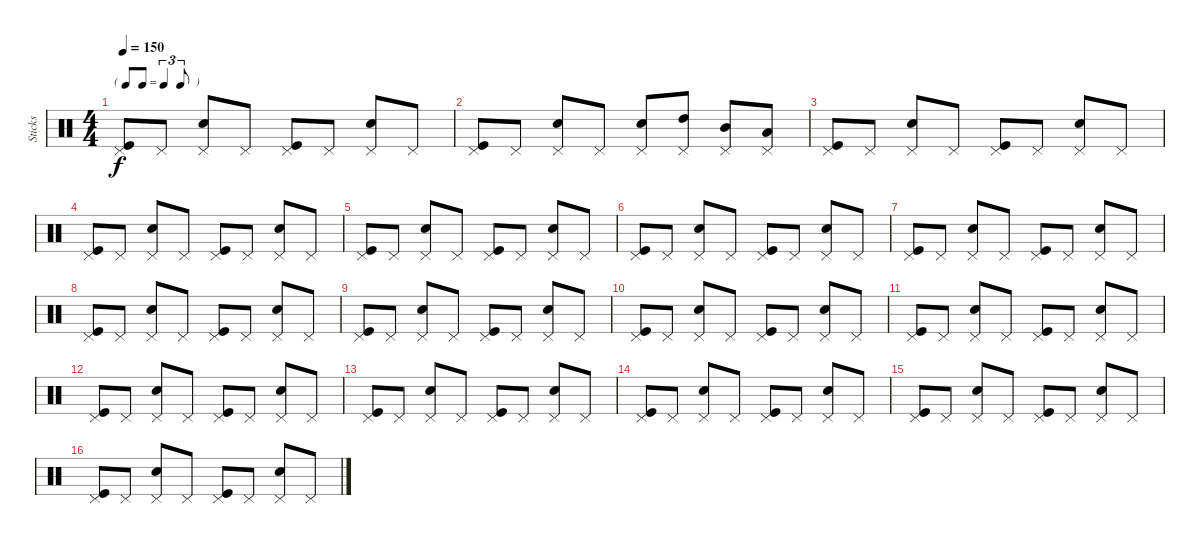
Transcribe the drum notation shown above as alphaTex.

\track ("Sticks" "Sticks") {instrument percussion}
\staff {score}
\articulation defaults
\ts (4 4)
\tf triplet8th
\tempo 150
\clef neutral
\ks c
("Pedal Hi-Hat (hit)" "Kick (hit)").8{dy f} "Pedal Hi-Hat (hit)".8 ("Pedal Hi-Hat (hit)" "Snare (hit) 2").8 "Pedal Hi-Hat (hit)".8 ("Pedal Hi-Hat (hit)" "Kick (hit)").8 "Pedal Hi-Hat (hit)".8 ("Pedal Hi-Hat (hit)" "Snare (hit) 2").8 "Pedal Hi-Hat (hit)".8 |
("Pedal Hi-Hat (hit)" "Kick (hit)").8 "Pedal Hi-Hat (hit)".8 ("Pedal Hi-Hat (hit)" "Snare (hit) 2").8 "Pedal Hi-Hat (hit)".8 ("Pedal Hi-Hat (hit)" "Snare (hit) 2").8 ("Pedal Hi-Hat (hit)" "High Tom (hit)").8 ("Pedal Hi-Hat (hit)" "Mid Tom (hit)").8 ("Pedal Hi-Hat (hit)" "Low Tom (hit)").8 |
("Pedal Hi-Hat (hit)" "Kick (hit)").8 "Pedal Hi-Hat (hit)".8 ("Pedal Hi-Hat (hit)" "Snare (hit) 2").8 "Pedal Hi-Hat (hit)".8 ("Pedal Hi-Hat (hit)" "Kick (hit)").8 "Pedal Hi-Hat (hit)".8 ("Pedal Hi-Hat (hit)" "Snare (hit) 2").8 "Pedal Hi-Hat (hit)".8 |
("Pedal Hi-Hat (hit)" "Kick (hit)").8 "Pedal Hi-Hat (hit)".8 ("Pedal Hi-Hat (hit)" "Snare (hit) 2").8 "Pedal Hi-Hat (hit)".8 ("Pedal Hi-Hat (hit)" "Kick (hit)").8 "Pedal Hi-Hat (hit)".8 ("Pedal Hi-Hat (hit)" "Snare (hit) 2").8 "Pedal Hi-Hat (hit)".8 |
("Pedal Hi-Hat (hit)" "Kick (hit)").8 "Pedal Hi-Hat (hit)".8 ("Pedal Hi-Hat (hit)" "Snare (hit) 2").8 "Pedal Hi-Hat (hit)".8 ("Pedal Hi-Hat (hit)" "Kick (hit)").8 "Pedal Hi-Hat (hit)".8 ("Pedal Hi-Hat (hit)" "Snare (hit) 2").8 "Pedal Hi-Hat (hit)".8 |
("Pedal Hi-Hat (hit)" "Kick (hit)").8 "Pedal Hi-Hat (hit)".8 ("Pedal Hi-Hat (hit)" "Snare (hit) 2").8 "Pedal Hi-Hat (hit)".8 ("Pedal Hi-Hat (hit)" "Kick (hit)").8 "Pedal Hi-Hat (hit)".8 ("Pedal Hi-Hat (hit)" "Snare (hit) 2").8 "Pedal Hi-Hat (hit)".8 |
("Pedal Hi-Hat (hit)" "Kick (hit)").8 "Pedal Hi-Hat (hit)".8 ("Pedal Hi-Hat (hit)" "Snare (hit) 2").8 "Pedal Hi-Hat (hit)".8 ("Pedal Hi-Hat (hit)" "Kick (hit)").8 "Pedal Hi-Hat (hit)".8 ("Pedal Hi-Hat (hit)" "Snare (hit) 2").8 "Pedal Hi-Hat (hit)".8 |
("Pedal Hi-Hat (hit)" "Kick (hit)").8 "Pedal Hi-Hat (hit)".8 ("Pedal Hi-Hat (hit)" "Snare (hit) 2").8 "Pedal Hi-Hat (hit)".8 ("Pedal Hi-Hat (hit)" "Kick (hit)").8 "Pedal Hi-Hat (hit)".8 ("Pedal Hi-Hat (hit)" "Snare (hit) 2").8 "Pedal Hi-Hat (hit)".8 |
("Pedal Hi-Hat (hit)" "Kick (hit)").8 "Pedal Hi-Hat (hit)".8 ("Pedal Hi-Hat (hit)" "Snare (hit) 2").8 "Pedal Hi-Hat (hit)".8 ("Pedal Hi-Hat (hit)" "Kick (hit)").8 "Pedal Hi-Hat (hit)".8 ("Pedal Hi-Hat (hit)" "Snare (hit) 2").8 "Pedal Hi-Hat (hit)".8 |
("Pedal Hi-Hat (hit)" "Kick (hit)").8 "Pedal Hi-Hat (hit)".8 ("Pedal Hi-Hat (hit)" "Snare (hit) 2").8 "Pedal Hi-Hat (hit)".8 ("Pedal Hi-Hat (hit)" "Kick (hit)").8 "Pedal Hi-Hat (hit)".8 ("Pedal Hi-Hat (hit)" "Snare (hit) 2").8 "Pedal Hi-Hat (hit)".8 |
("Pedal Hi-Hat (hit)" "Kick (hit)").8 "Pedal Hi-Hat (hit)".8 ("Pedal Hi-Hat (hit)" "Snare (hit) 2").8 "Pedal Hi-Hat (hit)".8 ("Pedal Hi-Hat (hit)" "Kick (hit)").8 "Pedal Hi-Hat (hit)".8 ("Pedal Hi-Hat (hit)" "Snare (hit) 2").8 "Pedal Hi-Hat (hit)".8 |
("Pedal Hi-Hat (hit)" "Kick (hit)").8 "Pedal Hi-Hat (hit)".8 ("Pedal Hi-Hat (hit)" "Snare (hit) 2").8 "Pedal Hi-Hat (hit)".8 ("Pedal Hi-Hat (hit)" "Kick (hit)").8 "Pedal Hi-Hat (hit)".8 ("Pedal Hi-Hat (hit)" "Snare (hit) 2").8 "Pedal Hi-Hat (hit)".8 |
("Pedal Hi-Hat (hit)" "Kick (hit)").8 "Pedal Hi-Hat (hit)".8 ("Pedal Hi-Hat (hit)" "Snare (hit) 2").8 "Pedal Hi-Hat (hit)".8 ("Pedal Hi-Hat (hit)" "Kick (hit)").8 "Pedal Hi-Hat (hit)".8 ("Pedal Hi-Hat (hit)" "Snare (hit) 2").8 "Pedal Hi-Hat (hit)".8 |
("Pedal Hi-Hat (hit)" "Kick (hit)").8 "Pedal Hi-Hat (hit)".8 ("Pedal Hi-Hat (hit)" "Snare (hit) 2").8 "Pedal Hi-Hat (hit)".8 ("Pedal Hi-Hat (hit)" "Kick (hit)").8 "Pedal Hi-Hat (hit)".8 ("Pedal Hi-Hat (hit)" "Snare (hit) 2").8 "Pedal Hi-Hat (hit)".8 |
("Pedal Hi-Hat (hit)" "Kick (hit)").8 "Pedal Hi-Hat (hit)".8 ("Pedal Hi-Hat (hit)" "Snare (hit) 2").8 "Pedal Hi-Hat (hit)".8 ("Pedal Hi-Hat (hit)" "Kick (hit)").8 "Pedal Hi-Hat (hit)".8 ("Pedal Hi-Hat (hit)" "Snare (hit) 2").8 "Pedal Hi-Hat (hit)".8 |
("Pedal Hi-Hat (hit)" "Kick (hit)").8 "Pedal Hi-Hat (hit)".8 ("Pedal Hi-Hat (hit)" "Snare (hit) 2").8 "Pedal Hi-Hat (hit)".8 ("Pedal Hi-Hat (hit)" "Kick (hit)").8 "Pedal Hi-Hat (hit)".8 ("Pedal Hi-Hat (hit)" "Snare (hit) 2").8 "Pedal Hi-Hat (hit)".8
